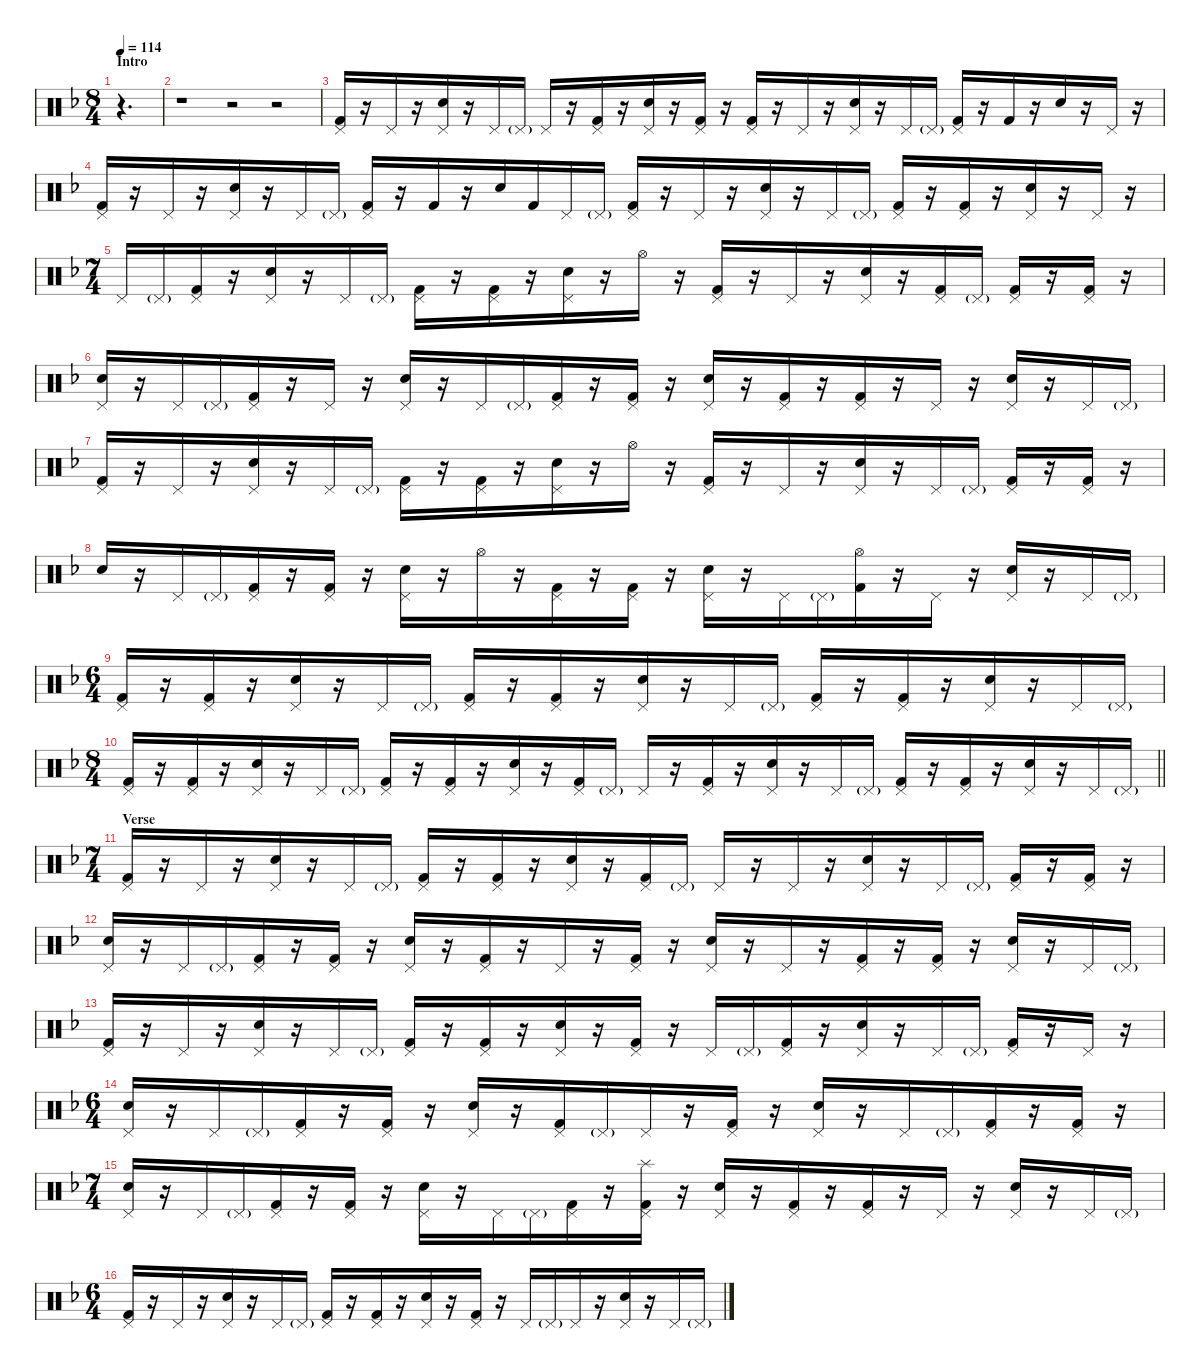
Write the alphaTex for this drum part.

\defaultSystemsLayout 4
\hideDynamics
\bracketExtendMode nobrackets
\singleTrackTrackNamePolicy hidden
\multiTrackTrackNamePolicy hidden
\firstSystemTrackNameMode fullname
\otherSystemsTrackNameOrientation horizontal
\track ("Drums" "drm.") {instrument percussion}
\staff {score}
\articulation defaults
\ts (8 4)
\beaming (8 4 4 4 4)
\section ("" "Intro")
\ac
\tempo 114
\clef neutral
\ks dminor
r.4{d dy f beam Down} |
r.1{beam Down} r.2{beam Down} r.2{beam Down} |
("Pedal Hi-Hat (hit)"{acc forcenatural} "Kick (hit) 2"{acc forcenatural}).16{beam Up} r.16{beam Up} "Pedal Hi-Hat (hit)"{acc forcenatural}.16{beam Up} r.16{beam Up} ("Pedal Hi-Hat (hit)"{acc forcenatural} "Snare (hit) 2"{acc forcenatural}).16{beam Up} r.16{beam Up} "Pedal Hi-Hat (hit)"{acc forcenatural}.16{beam Up} "Pedal Hi-Hat (hit)"{g acc forcenatural}.16{dy mf beam Up} "Pedal Hi-Hat (hit)"{acc forcenatural}.16{dy f beam Up} r.16{beam Up} ("Pedal Hi-Hat (hit)"{acc forcenatural} "Kick (hit) 2"{acc forcenatural}).16{beam Up} r.16{beam Up} ("Pedal Hi-Hat (hit)"{acc forcenatural} "Snare (hit) 2"{acc forcenatural}).16{beam Up} r.16{beam Up} ("Pedal Hi-Hat (hit)"{acc forcenatural} "Kick (hit) 2"{acc forcenatural}).16{beam Up} r.16{beam Up} ("Pedal Hi-Hat (hit)"{acc forcenatural} "Kick (hit) 2"{acc forcenatural}).16{beam Up} r.16{beam Up} "Pedal Hi-Hat (hit)"{acc forcenatural}.16{beam Up} r.16{beam Up} ("Pedal Hi-Hat (hit)"{acc forcenatural} "Snare (hit) 2"{acc forcenatural}).16{beam Up} r.16{beam Up} "Pedal Hi-Hat (hit)"{acc forcenatural}.16{beam Up} "Pedal Hi-Hat (hit)"{g acc forcenatural}.16{dy mf beam Up} ("Pedal Hi-Hat (hit)"{acc forcenatural} "Kick (hit) 2"{acc forcenatural}).16{dy f beam Up} r.16{beam Up} "Kick (hit) 2"{acc forcenatural}.16{beam Up} r.16{beam Up} "Snare (hit) 2"{acc forcenatural}.16{beam Up} r.16{beam Up} "Pedal Hi-Hat (hit)"{acc forcenatural}.16{beam Up} r.16{beam Up} |
("Pedal Hi-Hat (hit)"{acc forcenatural} "Kick (hit) 2"{acc forcenatural}).16{beam Up} r.16{beam Up} "Pedal Hi-Hat (hit)"{acc forcenatural}.16{beam Up} r.16{beam Up} ("Pedal Hi-Hat (hit)"{acc forcenatural} "Snare (hit) 2"{acc forcenatural}).16{beam Up} r.16{beam Up} "Pedal Hi-Hat (hit)"{acc forcenatural}.16{beam Up} "Pedal Hi-Hat (hit)"{g acc forcenatural}.16{dy mf beam Up} ("Pedal Hi-Hat (hit)"{acc forcenatural} "Kick (hit) 2"{acc forcenatural}).16{dy f beam Up} r.16{beam Up} "Kick (hit) 2"{acc forcenatural}.16{beam Up} r.16{beam Up} "Snare (hit) 2"{acc forcenatural}.16{beam Up} "Kick (hit) 2"{acc forcenatural}.16{beam Up} "Pedal Hi-Hat (hit)"{acc forcenatural}.16{beam Up} "Pedal Hi-Hat (hit)"{g acc forcenatural}.16{dy mf beam Up} ("Pedal Hi-Hat (hit)"{acc forcenatural} "Kick (hit) 2"{acc forcenatural}).16{dy f beam Up} r.16{beam Up} "Pedal Hi-Hat (hit)"{acc forcenatural}.16{beam Up} r.16{beam Up} ("Pedal Hi-Hat (hit)"{acc forcenatural} "Snare (hit) 2"{acc forcenatural}).16{beam Up} r.16{beam Up} "Pedal Hi-Hat (hit)"{acc forcenatural}.16{beam Up} "Pedal Hi-Hat (hit)"{g acc forcenatural}.16{dy mf beam Up} ("Pedal Hi-Hat (hit)"{acc forcenatural} "Kick (hit) 2"{acc forcenatural}).16{dy f beam Up} r.16{beam Up} ("Pedal Hi-Hat (hit)"{acc forcenatural} "Kick (hit) 2"{acc forcenatural}).16{beam Up} r.16{beam Up} ("Pedal Hi-Hat (hit)"{acc forcenatural} "Snare (hit) 2"{acc forcenatural}).16{beam Up} r.16{beam Up} "Pedal Hi-Hat (hit)"{acc forcenatural}.16{beam Up} r.16{beam Up} |
\ts (7 4)
\beaming (8 4 4 4 4)
"Pedal Hi-Hat (hit)"{acc forcenatural}.16{beam Up} "Pedal Hi-Hat (hit)"{g acc forcenatural}.16{dy mf beam Up} ("Pedal Hi-Hat (hit)"{acc forcenatural} "Kick (hit) 2"{acc forcenatural}).16{dy f beam Up} r.16{beam Up} ("Pedal Hi-Hat (hit)"{acc forcenatural} "Snare (hit) 2"{acc forcenatural}).16{beam Up} r.16{beam Up} "Pedal Hi-Hat (hit)"{acc forcenatural}.16{beam Up} "Pedal Hi-Hat (hit)"{g acc forcenatural}.16{dy mf beam Up} ("Pedal Hi-Hat (hit)"{acc forcenatural} "Kick (hit) 2"{acc forcenatural}).16{dy f beam Down} r.16{beam Down} ("Pedal Hi-Hat (hit)"{acc forcenatural} "Kick (hit) 2"{acc forcenatural}).16{beam Down} r.16{beam Down} ("Pedal Hi-Hat (hit)"{acc forcenatural} "Snare (hit) 2"{acc forcenatural}).16{beam Down} r.16{beam Down} "Hi-Hat (open)"{acc forcenatural}.16{beam Down} r.16{beam Down} ("Pedal Hi-Hat (hit)"{acc forcenatural} "Kick (hit) 2"{acc forcenatural}).16{beam Up} r.16{beam Up} "Pedal Hi-Hat (hit)"{acc forcenatural}.16{beam Up} r.16{beam Up} ("Pedal Hi-Hat (hit)"{acc forcenatural} "Snare (hit) 2"{acc forcenatural}).16{beam Up} r.16{beam Up} ("Pedal Hi-Hat (hit)"{acc forcenatural} "Kick (hit) 2"{acc forcenatural}).16{beam Up} "Pedal Hi-Hat (hit)"{g acc forcenatural}.16{dy mf beam Up} ("Pedal Hi-Hat (hit)"{acc forcenatural} "Kick (hit) 2"{acc forcenatural}).16{dy f beam Up} r.16{beam Up} ("Pedal Hi-Hat (hit)"{acc forcenatural} "Kick (hit) 2"{acc forcenatural}).16{beam Up} r.16{beam Up} |
("Pedal Hi-Hat (hit)"{acc forcenatural} "Snare (hit) 2"{acc forcenatural}).16{beam Up} r.16{beam Up} "Pedal Hi-Hat (hit)"{acc forcenatural}.16{beam Up} "Pedal Hi-Hat (hit)"{g acc forcenatural}.16{dy mf beam Up} ("Pedal Hi-Hat (hit)"{acc forcenatural} "Kick (hit) 2"{acc forcenatural}).16{dy f beam Up} r.16{beam Up} "Pedal Hi-Hat (hit)"{acc forcenatural}.16{beam Up} r.16{beam Up} ("Pedal Hi-Hat (hit)"{acc forcenatural} "Snare (hit) 2"{acc forcenatural}).16{beam Up} r.16{beam Up} "Pedal Hi-Hat (hit)"{acc forcenatural}.16{beam Up} "Pedal Hi-Hat (hit)"{g acc forcenatural}.16{dy mf beam Up} ("Pedal Hi-Hat (hit)"{acc forcenatural} "Kick (hit) 2"{acc forcenatural}).16{dy f beam Up} r.16{beam Up} ("Pedal Hi-Hat (hit)"{acc forcenatural} "Kick (hit) 2"{acc forcenatural}).16{beam Up} r.16{beam Up} ("Pedal Hi-Hat (hit)"{acc forcenatural} "Snare (hit) 2"{acc forcenatural}).16{beam Up} r.16{beam Up} ("Pedal Hi-Hat (hit)"{acc forcenatural} "Kick (hit) 2"{acc forcenatural}).16{beam Up} r.16{beam Up} ("Pedal Hi-Hat (hit)"{acc forcenatural} "Kick (hit) 2"{acc forcenatural}).16{beam Up} r.16{beam Up} "Pedal Hi-Hat (hit)"{acc forcenatural}.16{beam Up} r.16{beam Up} ("Pedal Hi-Hat (hit)"{acc forcenatural} "Snare (hit) 2"{acc forcenatural}).16{beam Up} r.16{beam Up} "Pedal Hi-Hat (hit)"{acc forcenatural}.16{beam Up} "Pedal Hi-Hat (hit)"{g acc forcenatural}.16{dy mf beam Up} |
("Pedal Hi-Hat (hit)"{acc forcenatural} "Kick (hit) 2"{acc forcenatural}).16{dy f beam Up} r.16{beam Up} "Pedal Hi-Hat (hit)"{acc forcenatural}.16{beam Up} r.16{beam Up} ("Pedal Hi-Hat (hit)"{acc forcenatural} "Snare (hit) 2"{acc forcenatural}).16{beam Up} r.16{beam Up} "Pedal Hi-Hat (hit)"{acc forcenatural}.16{beam Up} "Pedal Hi-Hat (hit)"{g acc forcenatural}.16{dy mf beam Up} ("Pedal Hi-Hat (hit)"{acc forcenatural} "Kick (hit) 2"{acc forcenatural}).16{dy f beam Down} r.16{beam Down} ("Pedal Hi-Hat (hit)"{acc forcenatural} "Kick (hit) 2"{acc forcenatural}).16{beam Down} r.16{beam Down} ("Pedal Hi-Hat (hit)"{acc forcenatural} "Snare (hit) 2"{acc forcenatural}).16{beam Down} r.16{beam Down} "Hi-Hat (open)"{acc forcenatural}.16{beam Down} r.16{beam Down} ("Pedal Hi-Hat (hit)"{acc forcenatural} "Kick (hit) 2"{acc forcenatural}).16{beam Up} r.16{beam Up} "Pedal Hi-Hat (hit)"{acc forcenatural}.16{beam Up} r.16{beam Up} ("Pedal Hi-Hat (hit)"{acc forcenatural} "Snare (hit) 2"{acc forcenatural}).16{beam Up} r.16{beam Up} "Pedal Hi-Hat (hit)"{acc forcenatural}.16{beam Up} "Pedal Hi-Hat (hit)"{g acc forcenatural}.16{dy mf beam Up} ("Pedal Hi-Hat (hit)"{acc forcenatural} "Kick (hit) 2"{acc forcenatural}).16{dy f beam Up} r.16{beam Up} ("Pedal Hi-Hat (hit)"{acc forcenatural} "Kick (hit) 2"{acc forcenatural}).16{beam Up} r.16{beam Up} |
"Snare (hit) 2"{acc forcenatural}.16{beam Up} r.16{beam Up} "Pedal Hi-Hat (hit)"{acc forcenatural}.16{beam Up} "Pedal Hi-Hat (hit)"{g acc forcenatural}.16{dy mf beam Up} ("Pedal Hi-Hat (hit)"{acc forcenatural} "Kick (hit) 2"{acc forcenatural}).16{dy f beam Up} r.16{beam Up} ("Pedal Hi-Hat (hit)"{acc forcenatural} "Kick (hit) 2"{acc forcenatural}).16{beam Up} r.16{beam Up} ("Pedal Hi-Hat (hit)"{acc forcenatural} "Snare (hit) 2"{acc forcenatural}).16{beam Down} r.16{beam Down} "Hi-Hat (open)"{acc forcenatural}.16{beam Down} r.16{beam Down} ("Pedal Hi-Hat (hit)"{acc forcenatural} "Kick (hit) 2"{acc forcenatural}).16{beam Down} r.16{beam Down} ("Pedal Hi-Hat (hit)"{acc forcenatural} "Kick (hit) 2"{acc forcenatural}).16{beam Down} r.16{beam Down} ("Pedal Hi-Hat (hit)"{acc forcenatural} "Snare (hit) 2"{acc forcenatural}).16{beam Down} r.16{beam Down} "Pedal Hi-Hat (hit)"{acc forcenatural}.16{beam Down} "Pedal Hi-Hat (hit)"{g acc forcenatural}.16{dy mf beam Down} ("Hi-Hat (open)"{acc forcenatural} "Kick (hit) 2"{acc forcenatural}).16{dy f beam Down} r.16{beam Down} "Pedal Hi-Hat (hit)"{acc forcenatural}.16{beam Down} r.16{beam Down} ("Pedal Hi-Hat (hit)"{acc forcenatural} "Snare (hit) 2"{acc forcenatural}).16{beam Up} r.16{beam Up} "Pedal Hi-Hat (hit)"{acc forcenatural}.16{beam Up} "Pedal Hi-Hat (hit)"{g acc forcenatural}.16{dy mf beam Up} |
\ts (6 4)
\beaming (8 4 4 4 4)
("Pedal Hi-Hat (hit)"{acc forcenatural} "Kick (hit) 2"{acc forcenatural}).16{dy f beam Up} r.16{beam Up} ("Pedal Hi-Hat (hit)"{acc forcenatural} "Kick (hit) 2"{acc forcenatural}).16{beam Up} r.16{beam Up} ("Pedal Hi-Hat (hit)"{acc forcenatural} "Snare (hit) 2"{acc forcenatural}).16{beam Up} r.16{beam Up} "Pedal Hi-Hat (hit)"{acc forcenatural}.16{beam Up} "Pedal Hi-Hat (hit)"{g acc forcenatural}.16{dy mf beam Up} ("Pedal Hi-Hat (hit)"{acc forcenatural} "Kick (hit) 2"{acc forcenatural}).16{dy f beam Up} r.16{beam Up} ("Pedal Hi-Hat (hit)"{acc forcenatural} "Kick (hit) 2"{acc forcenatural}).16{beam Up} r.16{beam Up} ("Pedal Hi-Hat (hit)"{acc forcenatural} "Snare (hit) 2"{acc forcenatural}).16{beam Up} r.16{beam Up} "Pedal Hi-Hat (hit)"{acc forcenatural}.16{beam Up} "Pedal Hi-Hat (hit)"{g acc forcenatural}.16{dy mf beam Up} ("Pedal Hi-Hat (hit)"{acc forcenatural} "Kick (hit) 2"{acc forcenatural}).16{dy f beam Up} r.16{beam Up} ("Pedal Hi-Hat (hit)"{acc forcenatural} "Kick (hit) 2"{acc forcenatural}).16{beam Up} r.16{beam Up} ("Pedal Hi-Hat (hit)"{acc forcenatural} "Snare (hit) 2"{acc forcenatural}).16{beam Up} r.16{beam Up} "Pedal Hi-Hat (hit)"{acc forcenatural}.16{beam Up} "Pedal Hi-Hat (hit)"{g acc forcenatural}.16{dy mf beam Up} |
\ts (8 4)
\beaming (8 4 4 4 4)
\barLineRight lightlight
("Pedal Hi-Hat (hit)"{acc forcenatural} "Kick (hit) 2"{acc forcenatural}).16{dy f beam Up} r.16{beam Up} ("Pedal Hi-Hat (hit)"{acc forcenatural} "Kick (hit) 2"{acc forcenatural}).16{beam Up} r.16{beam Up} ("Pedal Hi-Hat (hit)"{acc forcenatural} "Snare (hit) 2"{acc forcenatural}).16{beam Up} r.16{beam Up} "Pedal Hi-Hat (hit)"{acc forcenatural}.16{beam Up} "Pedal Hi-Hat (hit)"{g acc forcenatural}.16{dy mf beam Up} ("Pedal Hi-Hat (hit)"{acc forcenatural} "Kick (hit) 2"{acc forcenatural}).16{dy f beam Up} r.16{beam Up} ("Pedal Hi-Hat (hit)"{acc forcenatural} "Kick (hit) 2"{acc forcenatural}).16{beam Up} r.16{beam Up} ("Pedal Hi-Hat (hit)"{acc forcenatural} "Snare (hit) 2"{acc forcenatural}).16{beam Up} r.16{beam Up} ("Pedal Hi-Hat (hit)"{acc forcenatural} "Kick (hit) 2"{acc forcenatural}).16{beam Up} "Pedal Hi-Hat (hit)"{g acc forcenatural}.16{dy mf beam Up} "Pedal Hi-Hat (hit)"{acc forcenatural}.16{dy f beam Up} r.16{beam Up} ("Pedal Hi-Hat (hit)"{acc forcenatural} "Kick (hit) 2"{acc forcenatural}).16{beam Up} r.16{beam Up} ("Pedal Hi-Hat (hit)"{acc forcenatural} "Snare (hit) 2"{acc forcenatural}).16{beam Up} r.16{beam Up} "Pedal Hi-Hat (hit)"{acc forcenatural}.16{beam Up} "Pedal Hi-Hat (hit)"{g acc forcenatural}.16{dy mf beam Up} ("Pedal Hi-Hat (hit)"{acc forcenatural} "Kick (hit) 2"{acc forcenatural}).16{dy f beam Up} r.16{beam Up} ("Pedal Hi-Hat (hit)"{acc forcenatural} "Kick (hit) 2"{acc forcenatural}).16{beam Up} r.16{beam Up} ("Pedal Hi-Hat (hit)"{acc forcenatural} "Snare (hit) 2"{acc forcenatural}).16{beam Up} r.16{beam Up} "Pedal Hi-Hat (hit)"{acc forcenatural}.16{beam Up} "Pedal Hi-Hat (hit)"{g acc forcenatural}.16{dy mf beam Up} |
\ts (7 4)
\beaming (8 4 4 4 4)
\section ("" "Verse")
("Pedal Hi-Hat (hit)"{acc forcenatural} "Kick (hit) 2"{acc forcenatural}).16{dy f beam Up} r.16{beam Up} "Pedal Hi-Hat (hit)"{acc forcenatural}.16{beam Up} r.16{beam Up} ("Pedal Hi-Hat (hit)"{acc forcenatural} "Snare (hit) 2"{acc forcenatural}).16{beam Up} r.16{beam Up} "Pedal Hi-Hat (hit)"{acc forcenatural}.16{beam Up} "Pedal Hi-Hat (hit)"{g acc forcenatural}.16{dy mf beam Up} ("Pedal Hi-Hat (hit)"{acc forcenatural} "Kick (hit) 2"{acc forcenatural}).16{dy f beam Up} r.16{beam Up} ("Pedal Hi-Hat (hit)"{acc forcenatural} "Kick (hit) 2"{acc forcenatural}).16{beam Up} r.16{beam Up} ("Pedal Hi-Hat (hit)"{acc forcenatural} "Snare (hit) 2"{acc forcenatural}).16{beam Up} r.16{beam Up} ("Pedal Hi-Hat (hit)"{acc forcenatural} "Kick (hit) 2"{acc forcenatural}).16{beam Up} "Pedal Hi-Hat (hit)"{g acc forcenatural}.16{dy mf beam Up} "Pedal Hi-Hat (hit)"{acc forcenatural}.16{dy f beam Up} r.16{beam Up} "Pedal Hi-Hat (hit)"{acc forcenatural}.16{beam Up} r.16{beam Up} ("Pedal Hi-Hat (hit)"{acc forcenatural} "Snare (hit) 2"{acc forcenatural}).16{beam Up} r.16{beam Up} "Pedal Hi-Hat (hit)"{acc forcenatural}.16{beam Up} "Pedal Hi-Hat (hit)"{g acc forcenatural}.16{dy mf beam Up} ("Pedal Hi-Hat (hit)"{acc forcenatural} "Kick (hit) 2"{acc forcenatural}).16{dy f beam Up} r.16{beam Up} ("Pedal Hi-Hat (hit)"{acc forcenatural} "Kick (hit) 2"{acc forcenatural}).16{beam Up} r.16{beam Up} |
("Pedal Hi-Hat (hit)"{acc forcenatural} "Snare (hit) 2"{acc forcenatural}).16{beam Up} r.16{beam Up} "Pedal Hi-Hat (hit)"{acc forcenatural}.16{beam Up} "Pedal Hi-Hat (hit)"{g acc forcenatural}.16{dy mf beam Up} ("Pedal Hi-Hat (hit)"{acc forcenatural} "Kick (hit) 2"{acc forcenatural}).16{dy f beam Up} r.16{beam Up} ("Pedal Hi-Hat (hit)"{acc forcenatural} "Kick (hit) 2"{acc forcenatural}).16{beam Up} r.16{beam Up} ("Pedal Hi-Hat (hit)"{acc forcenatural} "Snare (hit) 2"{acc forcenatural}).16{beam Up} r.16{beam Up} ("Pedal Hi-Hat (hit)"{acc forcenatural} "Kick (hit) 2"{acc forcenatural}).16{beam Up} r.16{beam Up} "Pedal Hi-Hat (hit)"{acc forcenatural}.16{beam Up} r.16{beam Up} ("Pedal Hi-Hat (hit)"{acc forcenatural} "Kick (hit) 2"{acc forcenatural}).16{beam Up} r.16{beam Up} ("Pedal Hi-Hat (hit)"{acc forcenatural} "Snare (hit) 2"{acc forcenatural}).16{beam Up} r.16{beam Up} "Pedal Hi-Hat (hit)"{acc forcenatural}.16{beam Up} r.16{beam Up} ("Pedal Hi-Hat (hit)"{acc forcenatural} "Kick (hit) 2"{acc forcenatural}).16{beam Up} r.16{beam Up} ("Pedal Hi-Hat (hit)"{acc forcenatural} "Kick (hit) 2"{acc forcenatural}).16{beam Up} r.16{beam Up} ("Pedal Hi-Hat (hit)"{acc forcenatural} "Snare (hit) 2"{acc forcenatural}).16{beam Up} r.16{beam Up} "Pedal Hi-Hat (hit)"{acc forcenatural}.16{beam Up} "Pedal Hi-Hat (hit)"{g acc forcenatural}.16{dy mf beam Up} |
("Pedal Hi-Hat (hit)"{acc forcenatural} "Kick (hit) 2"{acc forcenatural}).16{dy f beam Up} r.16{beam Up} "Pedal Hi-Hat (hit)"{acc forcenatural}.16{beam Up} r.16{beam Up} ("Pedal Hi-Hat (hit)"{acc forcenatural} "Snare (hit) 2"{acc forcenatural}).16{beam Up} r.16{beam Up} "Pedal Hi-Hat (hit)"{acc forcenatural}.16{beam Up} "Pedal Hi-Hat (hit)"{g acc forcenatural}.16{dy mf beam Up} ("Pedal Hi-Hat (hit)"{acc forcenatural} "Kick (hit) 2"{acc forcenatural}).16{dy f beam Up} r.16{beam Up} ("Pedal Hi-Hat (hit)"{acc forcenatural} "Kick (hit) 2"{acc forcenatural}).16{beam Up} r.16{beam Up} ("Pedal Hi-Hat (hit)"{acc forcenatural} "Snare (hit) 2"{acc forcenatural}).16{beam Up} r.16{beam Up} ("Pedal Hi-Hat (hit)"{acc forcenatural} "Kick (hit) 2"{acc forcenatural}).16{beam Up} r.16{beam Up} "Pedal Hi-Hat (hit)"{acc forcenatural}.16{beam Up} "Pedal Hi-Hat (hit)"{g acc forcenatural}.16{dy mf beam Up} ("Pedal Hi-Hat (hit)"{acc forcenatural} "Kick (hit) 2"{acc forcenatural}).16{dy f beam Up} r.16{beam Up} ("Pedal Hi-Hat (hit)"{acc forcenatural} "Snare (hit) 2"{acc forcenatural}).16{beam Up} r.16{beam Up} "Pedal Hi-Hat (hit)"{acc forcenatural}.16{beam Up} "Pedal Hi-Hat (hit)"{g acc forcenatural}.16{dy mf beam Up} ("Pedal Hi-Hat (hit)"{acc forcenatural} "Kick (hit) 2"{acc forcenatural}).16{dy f beam Up} r.16{beam Up} "Pedal Hi-Hat (hit)"{acc forcenatural}.16{beam Up} r.16{beam Up} |
\ts (6 4)
\beaming (8 4 4 4 4)
("Pedal Hi-Hat (hit)"{acc forcenatural} "Snare (hit) 2"{acc forcenatural}).16{beam Up} r.16{beam Up} "Pedal Hi-Hat (hit)"{acc forcenatural}.16{beam Up} "Pedal Hi-Hat (hit)"{g acc forcenatural}.16{dy mf beam Up} ("Pedal Hi-Hat (hit)"{acc forcenatural} "Kick (hit) 2"{acc forcenatural}).16{dy f beam Up} r.16{beam Up} ("Pedal Hi-Hat (hit)"{acc forcenatural} "Kick (hit) 2"{acc forcenatural}).16{beam Up} r.16{beam Up} ("Pedal Hi-Hat (hit)"{acc forcenatural} "Snare (hit) 2"{acc forcenatural}).16{beam Up} r.16{beam Up} ("Pedal Hi-Hat (hit)"{acc forcenatural} "Kick (hit) 2"{acc forcenatural}).16{beam Up} "Pedal Hi-Hat (hit)"{g acc forcenatural}.16{dy mf beam Up} "Pedal Hi-Hat (hit)"{acc forcenatural}.16{dy f beam Up} r.16{beam Up} ("Pedal Hi-Hat (hit)"{acc forcenatural} "Kick (hit) 2"{acc forcenatural}).16{beam Up} r.16{beam Up} ("Pedal Hi-Hat (hit)"{acc forcenatural} "Snare (hit) 2"{acc forcenatural}).16{beam Up} r.16{beam Up} "Pedal Hi-Hat (hit)"{acc forcenatural}.16{beam Up} "Pedal Hi-Hat (hit)"{g acc forcenatural}.16{dy mf beam Up} ("Pedal Hi-Hat (hit)"{acc forcenatural} "Kick (hit) 2"{acc forcenatural}).16{dy f beam Up} r.16{beam Up} ("Pedal Hi-Hat (hit)"{acc forcenatural} "Kick (hit) 2"{acc forcenatural}).16{beam Up} r.16{beam Up} |
\ts (7 4)
\beaming (8 4 4 4 4)
("Pedal Hi-Hat (hit)"{acc forcenatural} "Snare (hit) 2"{acc forcenatural}).16{beam Up} r.16{beam Up} "Pedal Hi-Hat (hit)"{acc forcenatural}.16{beam Up} "Pedal Hi-Hat (hit)"{g acc forcenatural}.16{dy mf beam Up} ("Pedal Hi-Hat (hit)"{acc forcenatural} "Kick (hit) 2"{acc forcenatural}).16{dy f beam Up} r.16{beam Up} ("Pedal Hi-Hat (hit)"{acc forcenatural} "Kick (hit) 2"{acc forcenatural}).16{beam Up} r.16{beam Up} ("Pedal Hi-Hat (hit)"{acc forcenatural} "Snare (hit) 2"{acc forcenatural}).16{beam Down} r.16{beam Down} "Pedal Hi-Hat (hit)"{acc forcenatural}.16{beam Down} "Pedal Hi-Hat (hit)"{g acc forcenatural}.16{dy mf beam Down} ("Pedal Hi-Hat (hit)"{acc forcenatural} "Kick (hit) 2"{acc forcenatural}).16{dy f beam Down} r.16{beam Down} ("Splash (hit)"{acc forcenatural} "Pedal Hi-Hat (hit)"{acc forcenatural} "Kick (hit) 2"{acc forcenatural}).16{beam Down} r.16{beam Down} ("Pedal Hi-Hat (hit)"{acc forcenatural} "Snare (hit) 2"{acc forcenatural}).16{beam Up} r.16{beam Up} ("Pedal Hi-Hat (hit)"{acc forcenatural} "Kick (hit) 2"{acc forcenatural}).16{beam Up} r.16{beam Up} ("Pedal Hi-Hat (hit)"{acc forcenatural} "Kick (hit) 2"{acc forcenatural}).16{beam Up} r.16{beam Up} "Pedal Hi-Hat (hit)"{acc forcenatural}.16{beam Up} r.16{beam Up} ("Pedal Hi-Hat (hit)"{acc forcenatural} "Snare (hit) 2"{acc forcenatural}).16{beam Up} r.16{beam Up} "Pedal Hi-Hat (hit)"{acc forcenatural}.16{beam Up} "Pedal Hi-Hat (hit)"{g acc forcenatural}.16{dy mf beam Up} |
\ts (6 4)
\beaming (8 4 4 4 4)
("Pedal Hi-Hat (hit)"{acc forcenatural} "Kick (hit) 2"{acc forcenatural}).16{dy f beam Up} r.16{beam Up} "Pedal Hi-Hat (hit)"{acc forcenatural}.16{beam Up} r.16{beam Up} ("Pedal Hi-Hat (hit)"{acc forcenatural} "Snare (hit) 2"{acc forcenatural}).16{beam Up} r.16{beam Up} "Pedal Hi-Hat (hit)"{acc forcenatural}.16{beam Up} "Pedal Hi-Hat (hit)"{g acc forcenatural}.16{dy mf beam Up} ("Pedal Hi-Hat (hit)"{acc forcenatural} "Kick (hit) 2"{acc forcenatural}).16{dy f beam Up} r.16{beam Up} ("Pedal Hi-Hat (hit)"{acc forcenatural} "Kick (hit) 2"{acc forcenatural}).16{beam Up} r.16{beam Up} ("Pedal Hi-Hat (hit)"{acc forcenatural} "Snare (hit) 2"{acc forcenatural}).16{beam Up} r.16{beam Up} ("Pedal Hi-Hat (hit)"{acc forcenatural} "Kick (hit) 2"{acc forcenatural}).16{beam Up} r.16{beam Up} "Pedal Hi-Hat (hit)"{acc forcenatural}.16{beam Up} "Pedal Hi-Hat (hit)"{g acc forcenatural}.16{dy mf beam Up} "Pedal Hi-Hat (hit)"{acc forcenatural}.16{dy f beam Up} r.16{beam Up} ("Pedal Hi-Hat (hit)"{acc forcenatural} "Snare (hit) 2"{acc forcenatural}).16{beam Up} r.16{beam Up} "Pedal Hi-Hat (hit)"{acc forcenatural}.16{beam Up} "Pedal Hi-Hat (hit)"{g acc forcenatural}.16{dy mf beam Up}
